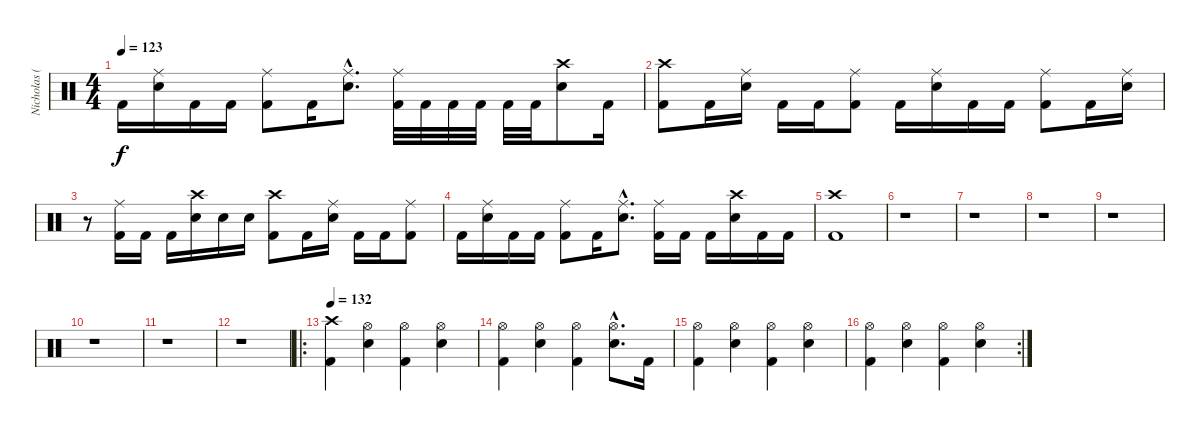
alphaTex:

\track ("Nicholas (Drums)" "Nicholas (") {instrument percussion}
\staff {score}
\articulation defaults
\ts (4 4)
\tempo 123
\clef neutral
\ks c "Kick (hit) 2".16{dy f}
("Ride (middle)" "Electric Snare (hit)").16 "Kick (hit) 2".16 "Kick (hit) 2".16 ("Ride (middle)" "Kick (hit) 2").8 "Kick (hit) 2".16 ("Ride (middle)"{hac} "Electric Snare (hit)"{hac}).8{d} ("Ride (middle)" "Kick (hit) 2").32 "Kick (hit) 2".32 "Kick (hit) 2".32 "Kick (hit) 2".32 "Kick (hit) 2".32 "Kick (hit) 2".32 ("Crash high (hit)" "Electric Snare (hit)").8 "Kick (hit) 2".16 |
("Crash high (hit)" "Kick (hit) 2").8 "Kick (hit) 2".16 ("Ride (middle)" "Electric Snare (hit)").16 "Kick (hit) 2".16 "Kick (hit) 2".16 ("Ride (middle)" "Kick (hit) 2").8 "Kick (hit) 2".16 ("Ride (middle)" "Electric Snare (hit)").16 "Kick (hit) 2".16 "Kick (hit) 2".16 ("Ride (middle)" "Kick (hit) 2").8 "Kick (hit) 2".16 ("Ride (middle)" "Electric Snare (hit)").16 |
r.8 ("Ride (middle)" "Kick (hit) 2").16 "Kick (hit) 2".16 "Kick (hit) 2".16 ("Crash high (hit)" "Electric Snare (hit)").16 "Electric Snare (hit)".16 "Electric Snare (hit)".16 ("Crash high (hit)" "Kick (hit) 2").8 "Kick (hit) 2".16 ("Ride (middle)" "Electric Snare (hit)").16 "Kick (hit) 2".16 "Kick (hit) 2".16 ("Ride (middle)" "Kick (hit) 2").8 |
"Kick (hit) 2".16 ("Ride (middle)" "Electric Snare (hit)").16 "Kick (hit) 2".16 "Kick (hit) 2".16 ("Ride (middle)" "Kick (hit) 2").8 "Kick (hit) 2".16 ("Ride (middle)"{hac} "Electric Snare (hit)"{hac}).8{d} ("Ride (middle)" "Kick (hit) 2").16 "Kick (hit) 2".16 "Kick (hit) 2".16 ("Crash high (hit)" "Electric Snare (hit)").16 "Kick (hit) 2".16 "Kick (hit) 2".16 |
("Crash high (hit)" "Kick (hit) 2").1 |
r.1 |
r.1 |
r.1 |
r.1 |
r.1 |
r.1 |
r.1 |
\ro
\tempo 132
("Crash high (hit)" "Kick (hit) 2").4 ("Hi-Hat (open)" "Electric Snare (hit)").4 ("Hi-Hat (open)" "Kick (hit) 2").4 ("Hi-Hat (open)" "Electric Snare (hit)").4 |
("Hi-Hat (open)" "Kick (hit) 2").4 ("Hi-Hat (open)" "Electric Snare (hit)").4 ("Hi-Hat (open)" "Kick (hit) 2").4 ("Hi-Hat (open)"{hac} "Electric Snare (hit)"{hac}).8{d} "Kick (hit) 2".16 |
("Hi-Hat (open)" "Kick (hit) 2").4 ("Hi-Hat (open)" "Electric Snare (hit)").4 ("Hi-Hat (open)" "Kick (hit) 2").4 ("Hi-Hat (open)" "Electric Snare (hit)").4 |
\rc 2
("Hi-Hat (open)" "Kick (hit) 2").4 ("Hi-Hat (open)" "Electric Snare (hit)").4 ("Hi-Hat (open)" "Kick (hit) 2").4 ("Hi-Hat (open)" "Electric Snare (hit)").4
